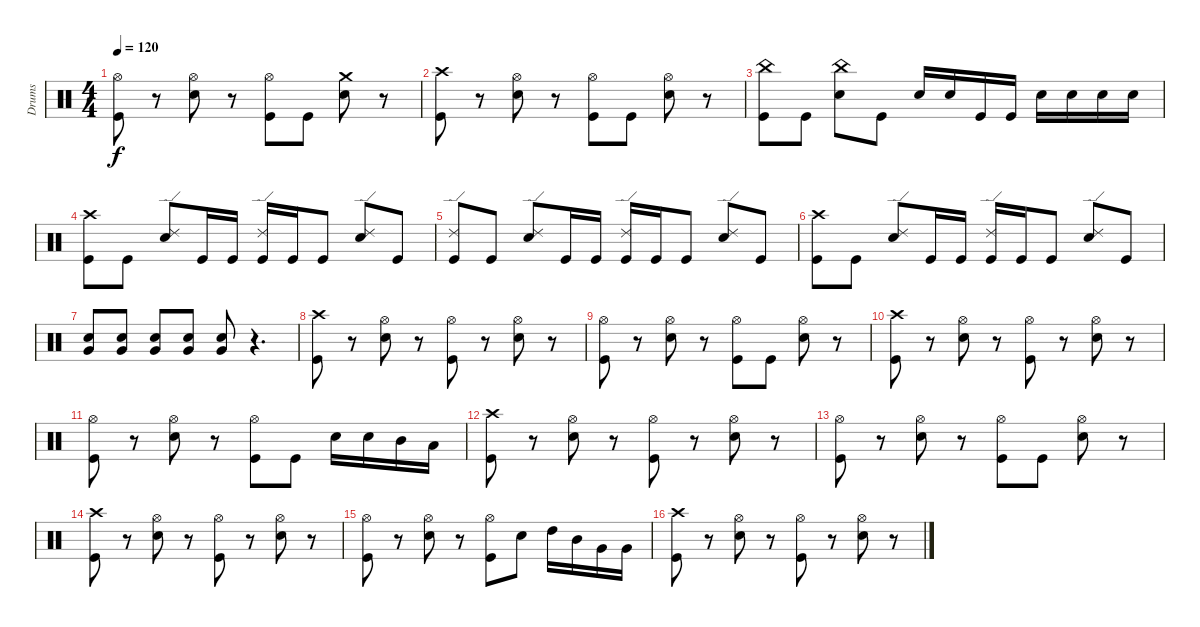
\track ("Drums" "Drums") {instrument percussion}
\staff {score}
\articulation defaults
\ts (4 4)
\tempo 120
\clef neutral
\ks c
("Hi-Hat (open)" "Kick (hit)").8{dy f} r.8 ("Hi-Hat (open)" "Snare (hit) 2").8 r.8 ("Kick (hit)" "Hi-Hat (open)").8 "Kick (hit)".8 ("Crash medium (hit)" "Snare (hit) 2").8 r.8 |
("Kick (hit)" "Crash high (hit)").8 r.8 ("Hi-Hat (open)" "Snare (hit) 2").8 r.8 ("Hi-Hat (open)" "Kick (hit)").8 "Kick (hit)".8 ("Hi-Hat (open)" "Snare (hit) 2").8 r.8 |
("China (hit)" "Kick (hit)").8 "Kick (hit)".8 ("China (hit)" "Snare (hit) 2").8 "Kick (hit)".8 "Snare (hit) 2".16 "Snare (hit) 2".16 "Kick (hit)".16 "Kick (hit)".16 "Snare (hit) 2".16 "Snare (hit) 2".16 "Snare (hit) 2".16 "Snare (hit) 2".16 |
("Crash high (hit)" "Kick (hit)").8 "Kick (hit)".8 ("Ride (edge) 2" "Snare (hit) 2").8 "Kick (hit)".16 "Kick (hit)".16 ("Ride (edge) 2" "Kick (hit)").16 "Kick (hit)".16 "Kick (hit)".8 ("Ride (edge) 2" "Snare (hit) 2").8 "Kick (hit)".8 |
("Ride (edge) 2" "Kick (hit)").8 "Kick (hit)".8 ("Ride (edge) 2" "Snare (hit) 2").8 "Kick (hit)".16 "Kick (hit)".16 ("Ride (edge) 2" "Kick (hit)").16 "Kick (hit)".16 "Kick (hit)".8 ("Ride (edge) 2" "Snare (hit) 2").8 "Kick (hit)".8 |
("Crash high (hit)" "Kick (hit)").8 "Kick (hit)".8 ("Ride (edge) 2" "Snare (hit) 2").8 "Kick (hit)".16 "Kick (hit)".16 ("Ride (edge) 2" "Kick (hit)").16 "Kick (hit)".16 "Kick (hit)".8 ("Ride (edge) 2" "Snare (hit) 2").8 "Kick (hit)".8 |
("Snare (hit) 2" "Very Low Tom (hit)").8 ("Snare (hit) 2" "Very Low Tom (hit)").8 ("Snare (hit) 2" "Very Low Tom (hit)").8 ("Snare (hit) 2" "Very Low Tom (hit)").8 ("Snare (hit) 2" "Very Low Tom (hit)").8 r.4{d} |
("Crash high (hit)" "Kick (hit)").8 r.8 ("Hi-Hat (open)" "Snare (hit) 2").8 r.8 ("Hi-Hat (open)" "Kick (hit)").8 r.8 ("Hi-Hat (open)" "Snare (hit) 2").8 r.8 |
("Hi-Hat (open)" "Kick (hit)").8 r.8 ("Hi-Hat (open)" "Snare (hit) 2").8 r.8 ("Hi-Hat (open)" "Kick (hit)").8 "Kick (hit)".8 ("Hi-Hat (open)" "Snare (hit) 2").8 r.8 |
("Crash high (hit)" "Kick (hit)").8 r.8 ("Hi-Hat (open)" "Snare (hit) 2").8 r.8 ("Hi-Hat (open)" "Kick (hit)").8 r.8 ("Hi-Hat (open)" "Snare (hit) 2").8 r.8 |
("Hi-Hat (open)" "Kick (hit)").8 r.8 ("Hi-Hat (open)" "Snare (hit) 2").8 r.8 ("Hi-Hat (open)" "Kick (hit)").8 "Kick (hit)".8 "Snare (hit) 2".16 "Snare (hit) 2".16 "Mid Tom (hit)".16 "Low Tom (hit)".16 |
("Crash high (hit)" "Kick (hit)").8 r.8 ("Hi-Hat (open)" "Snare (hit) 2").8 r.8 ("Hi-Hat (open)" "Kick (hit)").8 r.8 ("Hi-Hat (open)" "Snare (hit) 2").8 r.8 |
("Hi-Hat (open)" "Kick (hit)").8 r.8 ("Hi-Hat (open)" "Snare (hit) 2").8 r.8 ("Hi-Hat (open)" "Kick (hit)").8 "Kick (hit)".8 ("Hi-Hat (open)" "Snare (hit) 2").8 r.8 |
("Crash high (hit)" "Kick (hit)").8 r.8 ("Hi-Hat (open)" "Snare (hit) 2").8 r.8 ("Hi-Hat (open)" "Kick (hit)").8 r.8 ("Hi-Hat (open)" "Snare (hit) 2").8 r.8 |
("Hi-Hat (open)" "Kick (hit)").8 r.8 ("Hi-Hat (open)" "Snare (hit) 2").8 r.8 ("Kick (hit)" "Hi-Hat (open)").8 "Snare (hit) 2".8 "High Tom (hit)".16 "Mid Tom (hit)".16 "Very Low Tom (hit)".16 "Very Low Tom (hit)".16 |
("Crash high (hit)" "Kick (hit)").8 r.8 ("Hi-Hat (open)" "Snare (hit) 2").8 r.8 ("Hi-Hat (open)" "Kick (hit)").8 r.8 ("Hi-Hat (open)" "Snare (hit) 2").8 r.8
